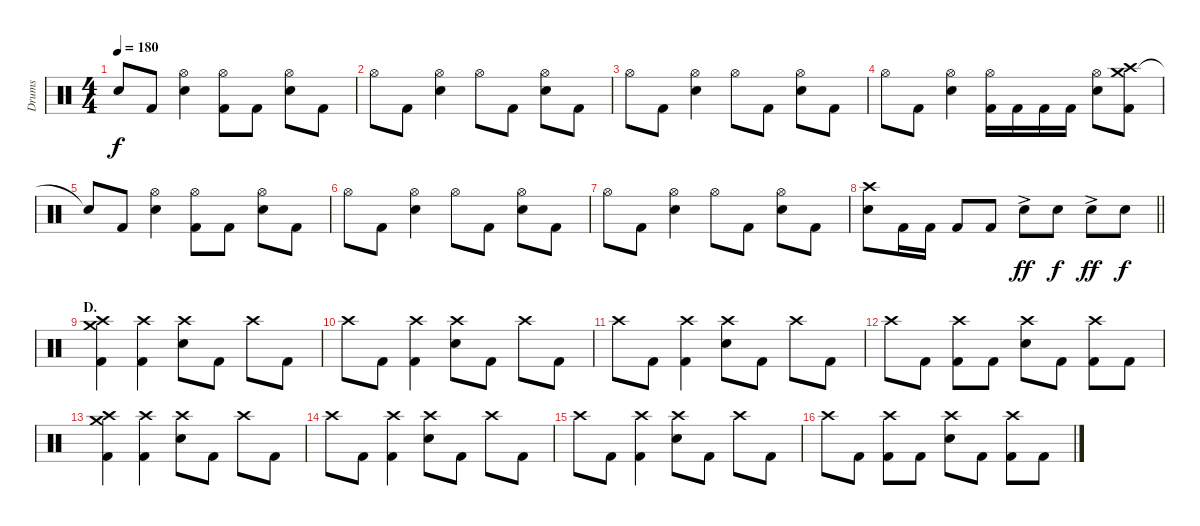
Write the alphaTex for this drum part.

\track ("Drums" "Drums") {instrument percussion}
\staff {score}
\articulation defaults
\ts (4 4)
\tempo 180
\clef neutral
\ks c "Snare (hit)"{t}.8{dy f} "Kick (hit) 2".8
("Hi-Hat (open)" "Electric Snare (hit)").4 ("Hi-Hat (open)" "Kick (hit) 2").8 "Kick (hit) 2".8 ("Hi-Hat (open)" "Electric Snare (hit)").8 "Kick (hit) 2".8 |
"Hi-Hat (open)".8 "Kick (hit) 2".8 ("Hi-Hat (open)" "Electric Snare (hit)").4 "Hi-Hat (open)".8 "Kick (hit) 2".8 ("Hi-Hat (open)" "Electric Snare (hit)").8 "Kick (hit) 2".8 |
"Hi-Hat (open)".8 "Kick (hit) 2".8 ("Hi-Hat (open)" "Electric Snare (hit)").4 "Hi-Hat (open)".8 "Kick (hit) 2".8 ("Hi-Hat (open)" "Electric Snare (hit)").8 "Kick (hit) 2".8 |
"Hi-Hat (open)".8 "Kick (hit) 2".8 ("Hi-Hat (open)" "Electric Snare (hit)").4 ("Hi-Hat (open)" "Kick (hit) 2").16 "Kick (hit) 2".16 "Kick (hit) 2".16 "Kick (hit) 2".16 ("Hi-Hat (open)" "Electric Snare (hit)").8 ("Crash medium (hit)" "Crash high (hit)" "Kick (hit) 2").8 |
"Snare (hit)"{t}.8 "Kick (hit) 2".8 ("Hi-Hat (open)" "Electric Snare (hit)").4 ("Hi-Hat (open)" "Kick (hit) 2").8 "Kick (hit) 2".8 ("Hi-Hat (open)" "Electric Snare (hit)").8 "Kick (hit) 2".8 |
"Hi-Hat (open)".8 "Kick (hit) 2".8 ("Hi-Hat (open)" "Electric Snare (hit)").4 "Hi-Hat (open)".8 "Kick (hit) 2".8 ("Hi-Hat (open)" "Electric Snare (hit)").8 "Kick (hit) 2".8 |
"Hi-Hat (open)".8 "Kick (hit) 2".8 ("Hi-Hat (open)" "Electric Snare (hit)").4 "Hi-Hat (open)".8 "Kick (hit) 2".8 ("Hi-Hat (open)" "Electric Snare (hit)").8 "Kick (hit) 2".8 |
\barLineRight lightlight
("Crash high (hit)" "Electric Snare (hit)").8 "Kick (hit) 2".16 "Kick (hit) 2".16 "Kick (hit) 2".8 "Kick (hit) 2".8 "Electric Snare (hit)"{ac}.8{dy ff} "Electric Snare (hit)".8{dy f} "Electric Snare (hit)"{ac}.8{dy ff} "Electric Snare (hit)".8{dy f} |
\section ("" "D.")
("Crash medium (hit)" "Crash high (hit)" "Kick (hit) 2").4 ("Crash high (hit)" "Kick (hit) 2").4 ("Crash high (hit)" "Electric Snare (hit)").8 "Kick (hit) 2".8 "Crash high (hit)".8 "Kick (hit) 2".8 |
"Crash high (hit)".8 "Kick (hit) 2".8 ("Crash high (hit)" "Kick (hit) 2").4 ("Crash high (hit)" "Electric Snare (hit)").8 "Kick (hit) 2".8 "Crash high (hit)".8 "Kick (hit) 2".8 |
"Crash high (hit)".8 "Kick (hit) 2".8 ("Crash high (hit)" "Kick (hit) 2").4 ("Crash high (hit)" "Electric Snare (hit)").8 "Kick (hit) 2".8 "Crash high (hit)".8 "Kick (hit) 2".8 |
"Crash high (hit)".8 "Kick (hit) 2".8 ("Crash high (hit)" "Kick (hit) 2").8 "Kick (hit) 2".8 ("Crash high (hit)" "Electric Snare (hit)").8 "Kick (hit) 2".8 ("Crash high (hit)" "Kick (hit) 2").8 "Kick (hit) 2".8 |
("Crash medium (hit)" "Crash high (hit)" "Kick (hit) 2").4 ("Crash high (hit)" "Kick (hit) 2").4 ("Crash high (hit)" "Electric Snare (hit)").8 "Kick (hit) 2".8 "Crash high (hit)".8 "Kick (hit) 2".8 |
"Crash high (hit)".8 "Kick (hit) 2".8 ("Crash high (hit)" "Kick (hit) 2").4 ("Crash high (hit)" "Electric Snare (hit)").8 "Kick (hit) 2".8 "Crash high (hit)".8 "Kick (hit) 2".8 |
"Crash high (hit)".8 "Kick (hit) 2".8 ("Crash high (hit)" "Kick (hit) 2").4 ("Crash high (hit)" "Electric Snare (hit)").8 "Kick (hit) 2".8 "Crash high (hit)".8 "Kick (hit) 2".8 |
"Crash high (hit)".8 "Kick (hit) 2".8 ("Crash high (hit)" "Kick (hit) 2").8 "Kick (hit) 2".8 ("Crash high (hit)" "Electric Snare (hit)").8 "Kick (hit) 2".8 ("Crash high (hit)" "Kick (hit) 2").8 "Kick (hit) 2".8
